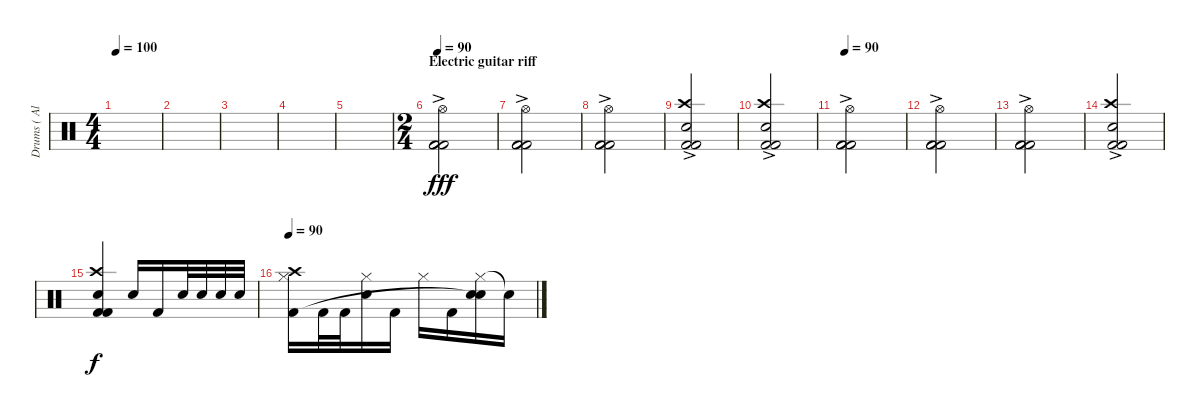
\track ("Drums ( Alex Holzwarth)" "Drums ( Al") {instrument percussion}
\staff {score}
\articulation defaults
\ts (4 4)
\tempo 100
\clef neutral
\ks c
|
|
|
|
|
\ts (2 4)
\section ("" "Electric guitar riff")
\tempo 90
("Hi-Hat (open)"{ac} "Kick (hit) 2"{ac} "Kick (hit) 2"{ac} "Kick (hit) 2"{ac}).2{dy fff} |
("Hi-Hat (open)"{ac} "Kick (hit) 2" "Kick (hit) 2" "Kick (hit) 2").2 |
("Hi-Hat (open)"{ac} "Kick (hit) 2" "Kick (hit) 2" "Kick (hit) 2").2 |
("Crash high (hit)"{ac} "Snare (hit) 2" "Kick (hit) 2" "Kick (hit) 2").2 |
("Crash high (hit)"{ac} "Snare (hit) 2" "Kick (hit) 2" "Kick (hit) 2").2 |
\tempo 90
("Hi-Hat (open)"{ac} "Kick (hit) 2" "Kick (hit) 2" "Kick (hit) 2").2 |
("Hi-Hat (open)"{ac} "Kick (hit) 2" "Kick (hit) 2" "Kick (hit) 2"{ac}).2 |
("Hi-Hat (open)"{ac} "Kick (hit) 2" "Kick (hit) 2" "Kick (hit) 2"{ac}).2 |
("Crash high (hit)"{ac} "Snare (hit) 2" "Kick (hit) 2" "Kick (hit) 2"{ac}).2 |
("Crash high (hit)" "Snare (hit) 2" "Kick (hit) 2" "Kick (hit) 2").4{dy f} "Electric Snare (hit)".16 "Kick (hit) 2".16 "Electric Snare (hit)".32 "Electric Snare (hit)".32 "Electric Snare (hit)".32 "Electric Snare (hit)".32 |
\tempo 90
("Crash high (hit)" "Hi-Hat (closed)" "Kick (hit) 2").16 "Kick (hit) 2".32 "Kick (hit) 2".32 ("Hi-Hat (closed)" "Electric Snare (hit)").16 "Kick (hit) 2".16 "Hi-Hat (closed)".16 "Kick (hit) 2".16 ("Hi-Hat (closed)" "Electric Snare (hit)" "Snare (hit)"{t}).16 "Snare (hit)"{t}.16
